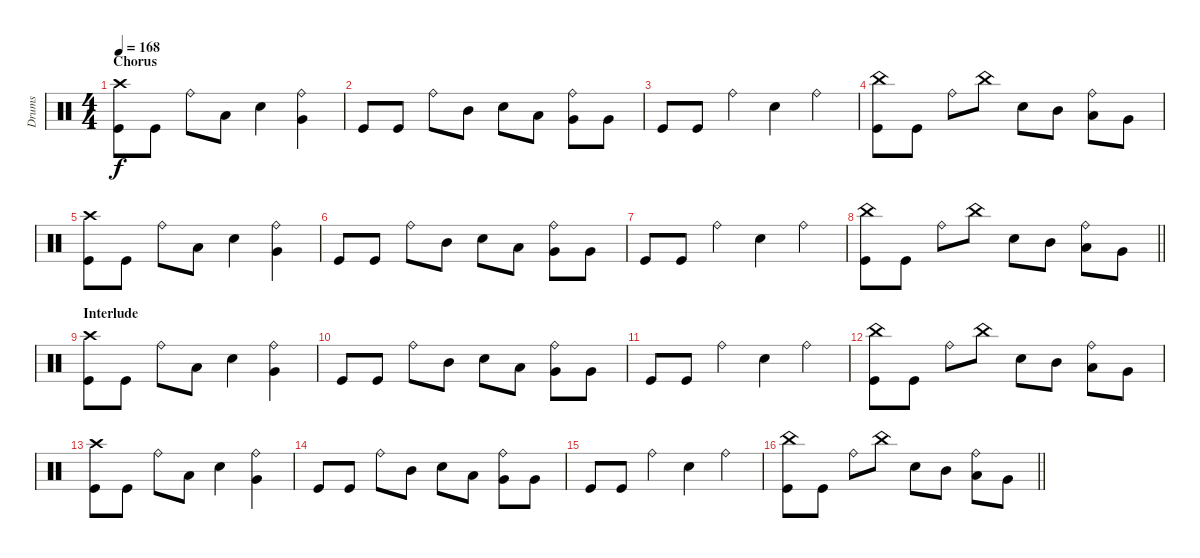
\track ("Drums" "Drums") {instrument percussion}
\staff {score}
\articulation defaults
\ts (4 4)
\section ("" "Chorus")
\tempo 168
\clef neutral
\ks c
("Crash high (hit)" "Kick (hit)").8{dy f} "Kick (hit)".8 "Ride (bell)".8 "Low Tom (hit)".8 "Electric Snare (hit)".4 ("Ride (bell)" "Very Low Tom (hit)").4 |
"Kick (hit)".8 "Kick (hit)".8 "Ride (bell)".8 "Mid Tom (hit)".8 "Electric Snare (hit)".8 "Low Tom (hit)".8 ("Ride (bell)" "Very Low Tom (hit)").8 "Very Low Tom (hit)".8 |
"Kick (hit)".8 "Kick (hit)".8 "Ride (bell)".4 "Electric Snare (hit)".4 "Ride (bell)".4 |
("China (hit)" "Kick (hit)").8 "Kick (hit)".8 "Ride (bell)".8 "China (hit)".8 "Electric Snare (hit)".8 "Mid Tom (hit)".8 ("Ride (bell)" "Low Tom (hit)").8 "Very Low Tom (hit)".8 |
("Crash high (hit)" "Kick (hit)").8 "Kick (hit)".8 "Ride (bell)".8 "Low Tom (hit)".8 "Electric Snare (hit)".4 ("Ride (bell)" "Very Low Tom (hit)").4 |
"Kick (hit)".8 "Kick (hit)".8 "Ride (bell)".8 "Mid Tom (hit)".8 "Electric Snare (hit)".8 "Low Tom (hit)".8 ("Ride (bell)" "Very Low Tom (hit)").8 "Very Low Tom (hit)".8 |
"Kick (hit)".8 "Kick (hit)".8 "Ride (bell)".4 "Electric Snare (hit)".4 "Ride (bell)".4 |
\barLineRight lightlight
("China (hit)" "Kick (hit)").8 "Kick (hit)".8 "Ride (bell)".8 "China (hit)".8 "Electric Snare (hit)".8 "Mid Tom (hit)".8 ("Ride (bell)" "Low Tom (hit)").8 "Very Low Tom (hit)".8 |
\section ("" "Interlude")
("Crash high (hit)" "Kick (hit)").8 "Kick (hit)".8 "Ride (bell)".8 "Low Tom (hit)".8 "Electric Snare (hit)".4 ("Ride (bell)" "Very Low Tom (hit)").4 |
"Kick (hit)".8 "Kick (hit)".8 "Ride (bell)".8 "Mid Tom (hit)".8 "Electric Snare (hit)".8 "Low Tom (hit)".8 ("Ride (bell)" "Very Low Tom (hit)").8 "Very Low Tom (hit)".8 |
"Kick (hit)".8 "Kick (hit)".8 "Ride (bell)".4 "Electric Snare (hit)".4 "Ride (bell)".4 |
("China (hit)" "Kick (hit)").8 "Kick (hit)".8 "Ride (bell)".8 "China (hit)".8 "Electric Snare (hit)".8 "Mid Tom (hit)".8 ("Ride (bell)" "Low Tom (hit)").8 "Very Low Tom (hit)".8 |
("Crash high (hit)" "Kick (hit)").8 "Kick (hit)".8 "Ride (bell)".8 "Low Tom (hit)".8 "Electric Snare (hit)".4 ("Ride (bell)" "Very Low Tom (hit)").4 |
"Kick (hit)".8 "Kick (hit)".8 "Ride (bell)".8 "Mid Tom (hit)".8 "Electric Snare (hit)".8 "Low Tom (hit)".8 ("Ride (bell)" "Very Low Tom (hit)").8 "Very Low Tom (hit)".8 |
"Kick (hit)".8 "Kick (hit)".8 "Ride (bell)".4 "Electric Snare (hit)".4 "Ride (bell)".4 |
\barLineRight lightlight
("China (hit)" "Kick (hit)").8 "Kick (hit)".8 "Ride (bell)".8 "China (hit)".8 "Electric Snare (hit)".8 "Mid Tom (hit)".8 ("Ride (bell)" "Low Tom (hit)").8 "Very Low Tom (hit)".8
